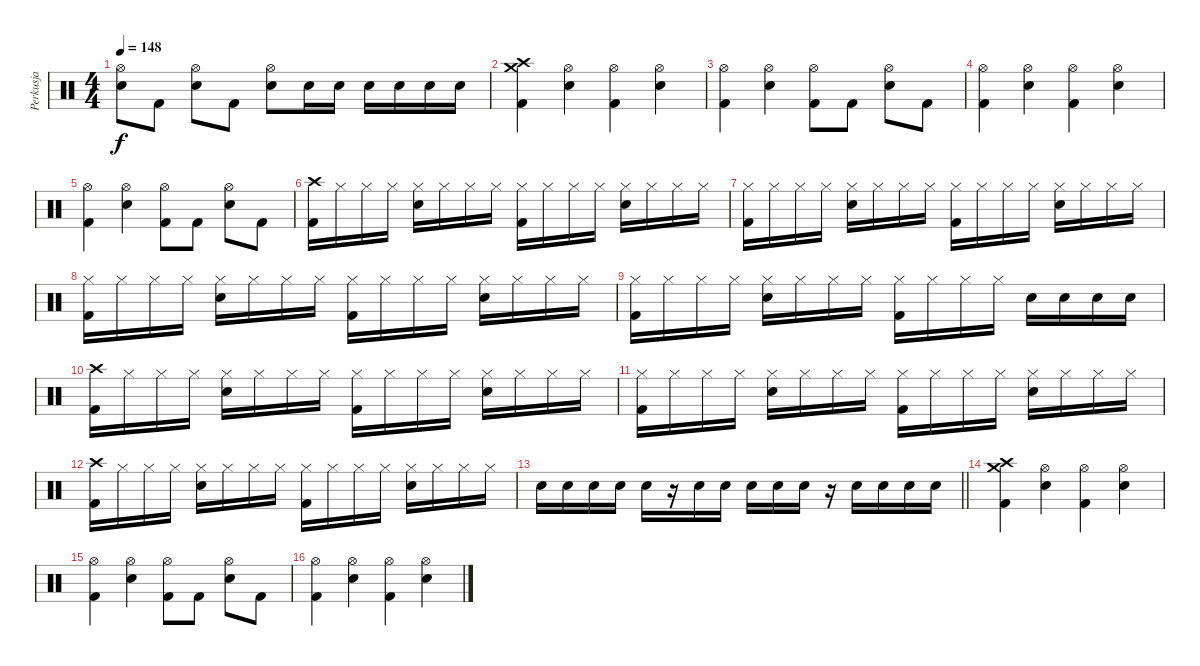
\track ("Perkusja" "Perkusja") {instrument percussion}
\staff {score}
\articulation defaults
\ts (4 4)
\tempo 148
\clef neutral
\ks c
("Hi-Hat (open)" "Snare (hit) 2").8{dy f} "Kick (hit) 2".8 ("Hi-Hat (open)" "Snare (hit) 2").8 "Kick (hit) 2".8 ("Hi-Hat (open)" "Snare (hit) 2").8 "Snare (hit) 2".16 "Snare (hit) 2".16 "Snare (hit) 2".16 "Snare (hit) 2".16 "Snare (hit) 2".16 "Snare (hit) 2".16 |
("Crash high (hit)" "Crash medium (hit)" "Kick (hit) 2").4 ("Hi-Hat (open)" "Snare (hit) 2").4 ("Hi-Hat (open)" "Kick (hit) 2").4 ("Hi-Hat (open)" "Snare (hit) 2").4 |
("Hi-Hat (open)" "Kick (hit) 2").4 ("Hi-Hat (open)" "Snare (hit) 2").4 ("Hi-Hat (open)" "Kick (hit) 2").8 "Kick (hit) 2".8 ("Hi-Hat (open)" "Snare (hit) 2").8 "Kick (hit) 2".8 |
("Hi-Hat (open)" "Kick (hit) 2").4 ("Hi-Hat (open)" "Snare (hit) 2").4 ("Hi-Hat (open)" "Kick (hit) 2").4 ("Hi-Hat (open)" "Snare (hit) 2").4 |
("Hi-Hat (open)" "Kick (hit) 2").4 ("Hi-Hat (open)" "Snare (hit) 2").4 ("Hi-Hat (open)" "Kick (hit) 2").8 "Kick (hit) 2".8 ("Hi-Hat (open)" "Snare (hit) 2").8 "Kick (hit) 2".8 |
("Crash high (hit)" "Kick (hit) 2").16 "Hi-Hat (closed)".16 "Hi-Hat (closed)".16 "Hi-Hat (closed)".16 ("Hi-Hat (closed)" "Snare (hit) 2").16 "Hi-Hat (closed)".16 "Hi-Hat (closed)".16 "Hi-Hat (closed)".16 ("Hi-Hat (closed)" "Kick (hit) 2").16 "Hi-Hat (closed)".16 "Hi-Hat (closed)".16 "Hi-Hat (closed)".16 ("Hi-Hat (closed)" "Snare (hit) 2").16 "Hi-Hat (closed)".16 "Hi-Hat (closed)".16 "Hi-Hat (closed)".16 |
("Hi-Hat (closed)" "Kick (hit) 2").16 "Hi-Hat (closed)".16 "Hi-Hat (closed)".16 "Hi-Hat (closed)".16 ("Hi-Hat (closed)" "Snare (hit) 2").16 "Hi-Hat (closed)".16 "Hi-Hat (closed)".16 "Hi-Hat (closed)".16 ("Hi-Hat (closed)" "Kick (hit) 2").16 "Hi-Hat (closed)".16 "Hi-Hat (closed)".16 "Hi-Hat (closed)".16 ("Hi-Hat (closed)" "Snare (hit) 2").16 "Hi-Hat (closed)".16 "Hi-Hat (closed)".16 "Hi-Hat (closed)".16 |
("Hi-Hat (closed)" "Kick (hit) 2").16 "Hi-Hat (closed)".16 "Hi-Hat (closed)".16 "Hi-Hat (closed)".16 ("Hi-Hat (closed)" "Snare (hit) 2").16 "Hi-Hat (closed)".16 "Hi-Hat (closed)".16 "Hi-Hat (closed)".16 ("Hi-Hat (closed)" "Kick (hit) 2").16 "Hi-Hat (closed)".16 "Hi-Hat (closed)".16 "Hi-Hat (closed)".16 ("Hi-Hat (closed)" "Snare (hit) 2").16 "Hi-Hat (closed)".16 "Hi-Hat (closed)".16 "Hi-Hat (closed)".16 |
("Hi-Hat (closed)" "Kick (hit) 2").16 "Hi-Hat (closed)".16 "Hi-Hat (closed)".16 "Hi-Hat (closed)".16 ("Hi-Hat (closed)" "Snare (hit) 2").16 "Hi-Hat (closed)".16 "Hi-Hat (closed)".16 "Hi-Hat (closed)".16 ("Hi-Hat (closed)" "Kick (hit) 2").16 "Hi-Hat (closed)".16 "Hi-Hat (closed)".16 "Hi-Hat (closed)".16 "Snare (hit) 2".16 "Snare (hit) 2".16 "Snare (hit) 2".16 "Snare (hit) 2".16 |
("Crash high (hit)" "Kick (hit) 2").16 "Hi-Hat (closed)".16 "Hi-Hat (closed)".16 "Hi-Hat (closed)".16 ("Hi-Hat (closed)" "Snare (hit) 2").16 "Hi-Hat (closed)".16 "Hi-Hat (closed)".16 "Hi-Hat (closed)".16 ("Hi-Hat (closed)" "Kick (hit) 2").16 "Hi-Hat (closed)".16 "Hi-Hat (closed)".16 "Hi-Hat (closed)".16 ("Hi-Hat (closed)" "Snare (hit) 2").16 "Hi-Hat (closed)".16 "Hi-Hat (closed)".16 "Hi-Hat (closed)".16 |
("Hi-Hat (closed)" "Kick (hit) 2").16 "Hi-Hat (closed)".16 "Hi-Hat (closed)".16 "Hi-Hat (closed)".16 ("Hi-Hat (closed)" "Snare (hit) 2").16 "Hi-Hat (closed)".16 "Hi-Hat (closed)".16 "Hi-Hat (closed)".16 ("Hi-Hat (closed)" "Kick (hit) 2").16 "Hi-Hat (closed)".16 "Hi-Hat (closed)".16 "Hi-Hat (closed)".16 ("Hi-Hat (closed)" "Snare (hit) 2").16 "Hi-Hat (closed)".16 "Hi-Hat (closed)".16 "Hi-Hat (closed)".16 |
("Crash high (hit)" "Kick (hit) 2").16 "Hi-Hat (closed)".16 "Hi-Hat (closed)".16 "Hi-Hat (closed)".16 ("Hi-Hat (closed)" "Snare (hit) 2").16 "Hi-Hat (closed)".16 "Hi-Hat (closed)".16 "Hi-Hat (closed)".16 ("Hi-Hat (closed)" "Kick (hit) 2").16 "Hi-Hat (closed)".16 "Hi-Hat (closed)".16 "Hi-Hat (closed)".16 ("Hi-Hat (closed)" "Snare (hit) 2").16 "Hi-Hat (closed)".16 "Hi-Hat (closed)".16 "Hi-Hat (closed)".16 |
\barLineRight lightlight "Snare (hit) 2".16 "Snare (hit) 2".16 "Snare (hit) 2".16 "Snare (hit) 2".16 "Snare (hit) 2".16
r.16 "Snare (hit) 2".16 "Snare (hit) 2".16 "Snare (hit) 2".16 "Snare (hit) 2".16 "Snare (hit) 2".16 r.16 "Snare (hit) 2".16 "Snare (hit) 2".16 "Snare (hit) 2".16 "Snare (hit) 2".16 |
("Crash high (hit)" "Crash medium (hit)" "Kick (hit) 2").4 ("Hi-Hat (open)" "Snare (hit) 2").4 ("Hi-Hat (open)" "Kick (hit) 2").4 ("Hi-Hat (open)" "Snare (hit) 2").4 |
("Hi-Hat (open)" "Kick (hit) 2").4 ("Hi-Hat (open)" "Snare (hit) 2").4 ("Hi-Hat (open)" "Kick (hit) 2").8 "Kick (hit) 2".8 ("Hi-Hat (open)" "Snare (hit) 2").8 "Kick (hit) 2".8 |
("Hi-Hat (open)" "Kick (hit) 2").4 ("Hi-Hat (open)" "Snare (hit) 2").4 ("Hi-Hat (open)" "Kick (hit) 2").4 ("Hi-Hat (open)" "Snare (hit) 2").4
